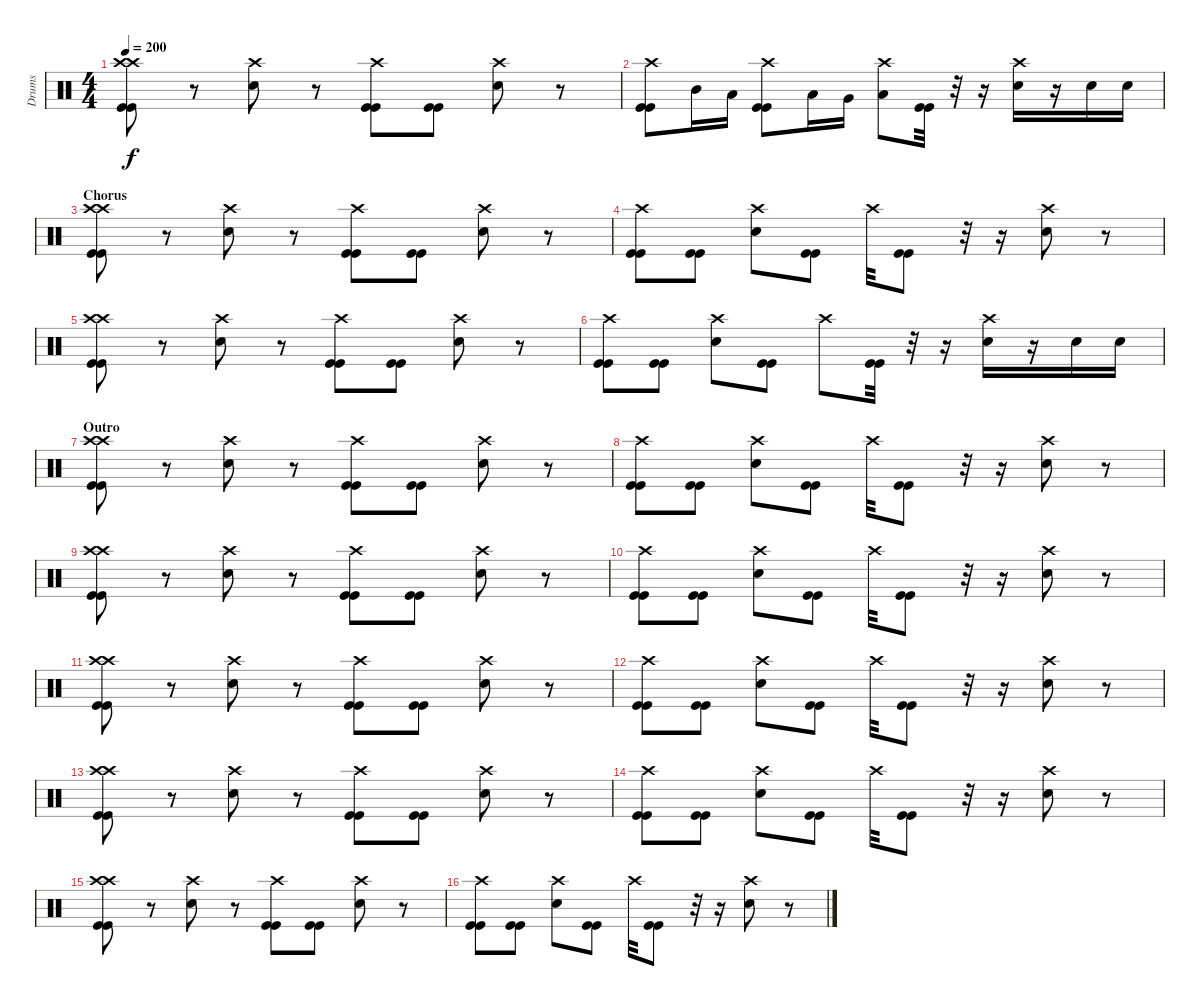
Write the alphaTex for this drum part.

\track ("Drums" "Drums") {instrument percussion}
\staff {score}
\articulation defaults
\ts (4 4)
\tempo 200
\clef neutral
\ks c
("Crash high (hit)" "Crash high (hit)" "Kick (hit)" "Kick (hit)").8{dy f} r.8 ("Crash high (hit)" "Electric Snare (hit)").8 r.8 ("Crash high (hit)" "Kick (hit)" "Kick (hit)").8 ("Kick (hit)" "Kick (hit)").8 ("Crash high (hit)" "Electric Snare (hit)").8 r.8 |
("Crash high (hit)" "Kick (hit)" "Kick (hit)").8 "Mid Tom (hit)".16 "Low Tom (hit)".16 ("Crash high (hit)" "Kick (hit)" "Kick (hit)").8 "Low Tom (hit)".16 "Very Low Tom (hit)".16 ("Crash high (hit)" "Low Tom (hit)").8 ("Kick (hit)" "Kick (hit)").32 r.32 r.16 ("Crash high (hit)" "Electric Snare (hit)").16 r.16 "Electric Snare (hit)".16 "Electric Snare (hit)".16 |
\section ("" "Chorus")
("Crash high (hit)" "Crash high (hit)" "Kick (hit)" "Kick (hit)").8 r.8 ("Crash high (hit)" "Electric Snare (hit)").8 r.8 ("Crash high (hit)" "Kick (hit)" "Kick (hit)").8 ("Kick (hit)" "Kick (hit)").8 ("Crash high (hit)" "Electric Snare (hit)").8 r.8 |
("Crash high (hit)" "Kick (hit)" "Kick (hit)").8 ("Kick (hit)" "Kick (hit)").8 ("Crash high (hit)" "Electric Snare (hit)").8 ("Kick (hit)" "Kick (hit)").8 "Crash high (hit)".32 ("Kick (hit)" "Kick (hit)").8 r.32 r.16 ("Crash high (hit)" "Electric Snare (hit)").8 r.8 |
("Crash high (hit)" "Crash high (hit)" "Kick (hit)" "Kick (hit)").8 r.8 ("Crash high (hit)" "Electric Snare (hit)").8 r.8 ("Crash high (hit)" "Kick (hit)" "Kick (hit)").8 ("Kick (hit)" "Kick (hit)").8 ("Crash high (hit)" "Electric Snare (hit)").8 r.8 |
("Crash high (hit)" "Kick (hit)" "Kick (hit)").8 ("Kick (hit)" "Kick (hit)").8 ("Crash high (hit)" "Electric Snare (hit)").8 ("Kick (hit)" "Kick (hit)").8 "Crash high (hit)".8 ("Kick (hit)" "Kick (hit)").32 r.32 r.16 ("Crash high (hit)" "Electric Snare (hit)").16 r.16 "Electric Snare (hit)".16 "Electric Snare (hit)".16 |
\section ("" "Outro")
("Crash high (hit)" "Crash high (hit)" "Kick (hit)" "Kick (hit)").8 r.8 ("Crash high (hit)" "Electric Snare (hit)").8 r.8 ("Crash high (hit)" "Kick (hit)" "Kick (hit)").8 ("Kick (hit)" "Kick (hit)").8 ("Crash high (hit)" "Electric Snare (hit)").8 r.8 |
("Crash high (hit)" "Kick (hit)" "Kick (hit)").8 ("Kick (hit)" "Kick (hit)").8 ("Crash high (hit)" "Electric Snare (hit)").8 ("Kick (hit)" "Kick (hit)").8 "Crash high (hit)".32 ("Kick (hit)" "Kick (hit)").8 r.32 r.16 ("Crash high (hit)" "Electric Snare (hit)").8 r.8 |
("Crash high (hit)" "Crash high (hit)" "Kick (hit)" "Kick (hit)").8 r.8 ("Crash high (hit)" "Electric Snare (hit)").8 r.8 ("Crash high (hit)" "Kick (hit)" "Kick (hit)").8 ("Kick (hit)" "Kick (hit)").8 ("Crash high (hit)" "Electric Snare (hit)").8 r.8 |
("Crash high (hit)" "Kick (hit)" "Kick (hit)").8 ("Kick (hit)" "Kick (hit)").8 ("Crash high (hit)" "Electric Snare (hit)").8 ("Kick (hit)" "Kick (hit)").8 "Crash high (hit)".32 ("Kick (hit)" "Kick (hit)").8 r.32 r.16 ("Crash high (hit)" "Electric Snare (hit)").8 r.8 |
("Crash high (hit)" "Crash high (hit)" "Kick (hit)" "Kick (hit)").8 r.8 ("Crash high (hit)" "Electric Snare (hit)").8 r.8 ("Crash high (hit)" "Kick (hit)" "Kick (hit)").8 ("Kick (hit)" "Kick (hit)").8 ("Crash high (hit)" "Electric Snare (hit)").8 r.8 |
("Crash high (hit)" "Kick (hit)" "Kick (hit)").8 ("Kick (hit)" "Kick (hit)").8 ("Crash high (hit)" "Electric Snare (hit)").8 ("Kick (hit)" "Kick (hit)").8 "Crash high (hit)".32 ("Kick (hit)" "Kick (hit)").8 r.32 r.16 ("Crash high (hit)" "Electric Snare (hit)").8 r.8 |
("Crash high (hit)" "Crash high (hit)" "Kick (hit)" "Kick (hit)").8 r.8 ("Crash high (hit)" "Electric Snare (hit)").8 r.8 ("Crash high (hit)" "Kick (hit)" "Kick (hit)").8 ("Kick (hit)" "Kick (hit)").8 ("Crash high (hit)" "Electric Snare (hit)").8 r.8 |
("Crash high (hit)" "Kick (hit)" "Kick (hit)").8 ("Kick (hit)" "Kick (hit)").8 ("Crash high (hit)" "Electric Snare (hit)").8 ("Kick (hit)" "Kick (hit)").8 "Crash high (hit)".32 ("Kick (hit)" "Kick (hit)").8 r.32 r.16 ("Crash high (hit)" "Electric Snare (hit)").8 r.8 |
("Crash high (hit)" "Crash high (hit)" "Kick (hit)" "Kick (hit)").8 r.8 ("Crash high (hit)" "Electric Snare (hit)").8 r.8 ("Crash high (hit)" "Kick (hit)" "Kick (hit)").8 ("Kick (hit)" "Kick (hit)").8 ("Crash high (hit)" "Electric Snare (hit)").8 r.8 |
("Crash high (hit)" "Kick (hit)" "Kick (hit)").8 ("Kick (hit)" "Kick (hit)").8 ("Crash high (hit)" "Electric Snare (hit)").8 ("Kick (hit)" "Kick (hit)").8 "Crash high (hit)".32 ("Kick (hit)" "Kick (hit)").8 r.32 r.16 ("Crash high (hit)" "Electric Snare (hit)").8 r.8
